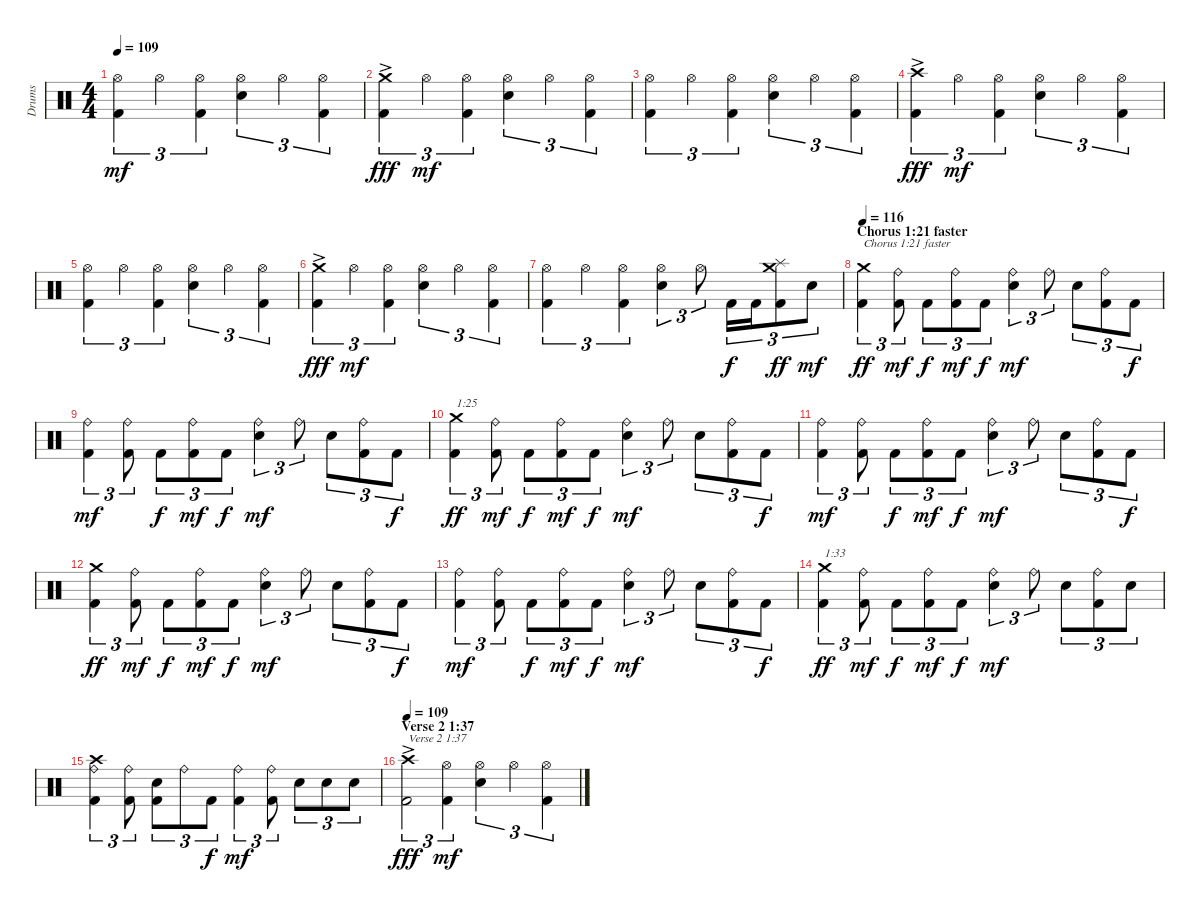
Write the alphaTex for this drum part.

\track ("Drums" "Drums") {instrument percussion}
\staff {score}
\articulation defaults
\ts (4 4)
\tempo 109
\clef neutral
\ks c
("Kick (hit) 2" "Hi-Hat (open)").4{tu (3 2) dy mf} "Hi-Hat (open)".4{tu (3 2)} ("Kick (hit) 2" "Hi-Hat (open)").4{tu (3 2)} ("Electric Snare (hit)" "Hi-Hat (open)").4{tu (3 2)} "Hi-Hat (open)".4{tu (3 2)} ("Kick (hit) 2" "Hi-Hat (open)").4{tu (3 2)} |
("Kick (hit) 2" "Crash medium (hit)"{ac}).4{tu (3 2) dy fff} "Hi-Hat (open)".4{tu (3 2) dy mf} ("Kick (hit) 2" "Hi-Hat (open)").4{tu (3 2)} ("Electric Snare (hit)" "Hi-Hat (open)").4{tu (3 2)} "Hi-Hat (open)".4{tu (3 2)} ("Kick (hit) 2" "Hi-Hat (open)").4{tu (3 2)} |
("Kick (hit) 2" "Hi-Hat (open)").4{tu (3 2)} "Hi-Hat (open)".4{tu (3 2)} ("Kick (hit) 2" "Hi-Hat (open)").4{tu (3 2)} ("Electric Snare (hit)" "Hi-Hat (open)").4{tu (3 2)} "Hi-Hat (open)".4{tu (3 2)} ("Kick (hit) 2" "Hi-Hat (open)").4{tu (3 2)} |
("Kick (hit) 2" "Crash high (hit)"{ac}).4{tu (3 2) dy fff} "Hi-Hat (open)".4{tu (3 2) dy mf} ("Kick (hit) 2" "Hi-Hat (open)").4{tu (3 2)} ("Electric Snare (hit)" "Hi-Hat (open)").4{tu (3 2)} "Hi-Hat (open)".4{tu (3 2)} ("Kick (hit) 2" "Hi-Hat (open)").4{tu (3 2)} |
("Kick (hit) 2" "Hi-Hat (open)").4{tu (3 2)} "Hi-Hat (open)".4{tu (3 2)} ("Kick (hit) 2" "Hi-Hat (open)").4{tu (3 2)} ("Electric Snare (hit)" "Hi-Hat (open)").4{tu (3 2)} "Hi-Hat (open)".4{tu (3 2)} ("Kick (hit) 2" "Hi-Hat (open)").4{tu (3 2)} |
("Kick (hit) 2" "Crash medium (hit)"{ac}).4{tu (3 2) dy fff} "Hi-Hat (open)".4{tu (3 2) dy mf} ("Kick (hit) 2" "Hi-Hat (open)").4{tu (3 2)} ("Electric Snare (hit)" "Hi-Hat (open)").4{tu (3 2)} "Hi-Hat (open)".4{tu (3 2)} ("Kick (hit) 2" "Hi-Hat (open)").4{tu (3 2)} |
("Kick (hit) 2" "Hi-Hat (open)").4{tu (3 2)} "Hi-Hat (open)".4{tu (3 2)} ("Kick (hit) 2" "Hi-Hat (open)").4{tu (3 2)} ("Electric Snare (hit)" "Hi-Hat (open)").4{tu (3 2)} "Hi-Hat (open)".8{tu (3 2)} "Kick (hit) 2".16{tu (3 2) dy f} "Kick (hit) 2".16{tu (3 2)} ("Kick (hit) 2" "Splash (hit)" "Crash medium (hit)").8{tu (3 2) dy ff} "Electric Snare (hit)".8{tu (3 2) dy mf} |
\section ("" "Chorus 1:21 faster")
\tempo 116
("Kick (hit) 2" "Crash medium (hit)").4{tu (3 2) txt "Chorus 1:21 faster" dy ff} ("Kick (hit) 2" "Ride (bell)").8{tu (3 2) dy mf} "Kick (hit) 2".8{tu (3 2) dy f} ("Kick (hit) 2" "Ride (bell)").8{tu (3 2) dy mf} "Kick (hit) 2".8{tu (3 2) dy f} ("Electric Snare (hit)" "Ride (bell)").4{tu (3 2) dy mf} "Ride (bell)".8{tu (3 2)} "Electric Snare (hit)".8{tu (3 2)} ("Kick (hit) 2" "Ride (bell)").8{tu (3 2)} "Kick (hit) 2".8{tu (3 2) dy f} |
("Kick (hit) 2" "Ride (bell)").4{tu (3 2) dy mf} ("Kick (hit) 2" "Ride (bell)").8{tu (3 2)} "Kick (hit) 2".8{tu (3 2) dy f} ("Kick (hit) 2" "Ride (bell)").8{tu (3 2) dy mf} "Kick (hit) 2".8{tu (3 2) dy f} ("Electric Snare (hit)" "Ride (bell)").4{tu (3 2) dy mf} "Ride (bell)".8{tu (3 2)} "Electric Snare (hit)".8{tu (3 2)} ("Kick (hit) 2" "Ride (bell)").8{tu (3 2)} "Kick (hit) 2".8{tu (3 2) dy f} |
("Kick (hit) 2" "Crash medium (hit)").4{tu (3 2) txt "1:25" dy ff} ("Kick (hit) 2" "Ride (bell)").8{tu (3 2) dy mf} "Kick (hit) 2".8{tu (3 2) dy f} ("Kick (hit) 2" "Ride (bell)").8{tu (3 2) dy mf} "Kick (hit) 2".8{tu (3 2) dy f} ("Electric Snare (hit)" "Ride (bell)").4{tu (3 2) dy mf} "Ride (bell)".8{tu (3 2)} "Electric Snare (hit)".8{tu (3 2)} ("Kick (hit) 2" "Ride (bell)").8{tu (3 2)} "Kick (hit) 2".8{tu (3 2) dy f} |
("Kick (hit) 2" "Ride (bell)").4{tu (3 2) dy mf} ("Kick (hit) 2" "Ride (bell)").8{tu (3 2)} "Kick (hit) 2".8{tu (3 2) dy f} ("Kick (hit) 2" "Ride (bell)").8{tu (3 2) dy mf} "Kick (hit) 2".8{tu (3 2) dy f} ("Electric Snare (hit)" "Ride (bell)").4{tu (3 2) dy mf} "Ride (bell)".8{tu (3 2)} "Electric Snare (hit)".8{tu (3 2)} ("Kick (hit) 2" "Ride (bell)").8{tu (3 2)} "Kick (hit) 2".8{tu (3 2) dy f} |
("Kick (hit) 2" "Crash medium (hit)").4{tu (3 2) dy ff} ("Kick (hit) 2" "Ride (bell)").8{tu (3 2) dy mf} "Kick (hit) 2".8{tu (3 2) dy f} ("Kick (hit) 2" "Ride (bell)").8{tu (3 2) dy mf} "Kick (hit) 2".8{tu (3 2) dy f} ("Electric Snare (hit)" "Ride (bell)").4{tu (3 2) dy mf} "Ride (bell)".8{tu (3 2)} "Electric Snare (hit)".8{tu (3 2)} ("Kick (hit) 2" "Ride (bell)").8{tu (3 2)} "Kick (hit) 2".8{tu (3 2) dy f} |
("Kick (hit) 2" "Ride (bell)").4{tu (3 2) dy mf} ("Kick (hit) 2" "Ride (bell)").8{tu (3 2)} "Kick (hit) 2".8{tu (3 2) dy f} ("Kick (hit) 2" "Ride (bell)").8{tu (3 2) dy mf} "Kick (hit) 2".8{tu (3 2) dy f} ("Electric Snare (hit)" "Ride (bell)").4{tu (3 2) dy mf} "Ride (bell)".8{tu (3 2)} "Electric Snare (hit)".8{tu (3 2)} ("Kick (hit) 2" "Ride (bell)").8{tu (3 2)} "Kick (hit) 2".8{tu (3 2) dy f} |
("Kick (hit) 2" "Crash medium (hit)").4{tu (3 2) txt "1:33" dy ff} ("Kick (hit) 2" "Ride (bell)").8{tu (3 2) dy mf} "Kick (hit) 2".8{tu (3 2) dy f} ("Kick (hit) 2" "Ride (bell)").8{tu (3 2) dy mf} "Kick (hit) 2".8{tu (3 2) dy f} ("Electric Snare (hit)" "Ride (bell)").4{tu (3 2) dy mf} "Ride (bell)".8{tu (3 2)} "Electric Snare (hit)".8{tu (3 2)} ("Kick (hit) 2" "Ride (bell)").8{tu (3 2)} "Electric Snare (hit)".8{tu (3 2)} |
("Kick (hit) 2" "Ride (bell)" "Crash high (hit)").4{tu (3 2)} ("Kick (hit) 2" "Ride (bell)").8{tu (3 2)} ("Kick (hit) 2" "Electric Snare (hit)").8{tu (3 2)} "Ride (bell)".8{tu (3 2)} "Kick (hit) 2".8{tu (3 2) dy f} ("Kick (hit) 2" "Ride (bell)").4{tu (3 2) dy mf} ("Kick (hit) 2" "Ride (bell)").8{tu (3 2)} "Electric Snare (hit)".8{tu (3 2)} "Electric Snare (hit)".8{tu (3 2)} "Electric Snare (hit)".8{tu (3 2)} |
\section ("" "Verse 2 1:37")
\tempo 109
("Kick (hit) 2" "Crash high (hit)"{ac}).2{tu (3 2) txt "Verse 2 1:37" dy fff} ("Kick (hit) 2" "Hi-Hat (open)").4{tu (3 2) dy mf} ("Electric Snare (hit)" "Hi-Hat (open)").4{tu (3 2)} "Hi-Hat (open)".4{tu (3 2)} ("Kick (hit) 2" "Hi-Hat (open)").4{tu (3 2)}
